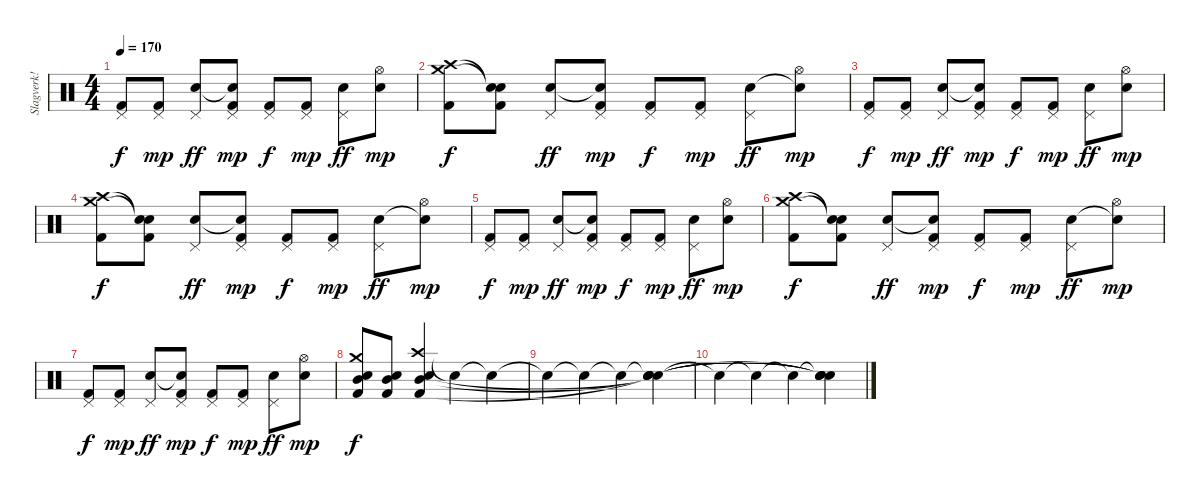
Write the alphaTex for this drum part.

\track ("Slagverk!" "Slagverk!") {instrument percussion}
\staff {score}
\articulation defaults
\ts (4 4)
\tempo 170
\clef neutral
\ks c
("Pedal Hi-Hat (hit)" "Kick (hit) 2").8{dy f} ("Pedal Hi-Hat (hit)" "Kick (hit) 2").8{dy mp} ("Pedal Hi-Hat (hit)" "Electric Snare (hit)").8{dy ff} ("Pedal Hi-Hat (hit)" "Snare (hit)"{t} "Kick (hit) 2").8{dy mp} ("Pedal Hi-Hat (hit)" "Kick (hit) 2").8{dy f} ("Pedal Hi-Hat (hit)" "Kick (hit) 2").8{dy mp} ("Pedal Hi-Hat (hit)" "Electric Snare (hit)").8{dy ff} ("Hi-Hat (open)" "Electric Snare (hit)").8{dy mp} |
("Crash medium (hit)" "Crash high (hit)" "Kick (hit) 2").8{dy f} ("Snare (hit)"{t} "Snare (hit)"{t} "Kick (hit) 2").8 ("Pedal Hi-Hat (hit)" "Electric Snare (hit)").8{dy ff} ("Pedal Hi-Hat (hit)" "Snare (hit)"{t} "Kick (hit) 2").8{dy mp} ("Pedal Hi-Hat (hit)" "Kick (hit) 2").8{dy f} ("Pedal Hi-Hat (hit)" "Kick (hit) 2").8{dy mp} ("Pedal Hi-Hat (hit)" "Electric Snare (hit)").8{dy ff} ("Hi-Hat (open)" "Snare (hit)"{t}).8{dy mp} |
("Pedal Hi-Hat (hit)" "Kick (hit) 2").8{dy f} ("Pedal Hi-Hat (hit)" "Kick (hit) 2").8{dy mp} ("Pedal Hi-Hat (hit)" "Electric Snare (hit)").8{dy ff} ("Pedal Hi-Hat (hit)" "Snare (hit)"{t} "Kick (hit) 2").8{dy mp} ("Pedal Hi-Hat (hit)" "Kick (hit) 2").8{dy f} ("Pedal Hi-Hat (hit)" "Kick (hit) 2").8{dy mp} ("Pedal Hi-Hat (hit)" "Electric Snare (hit)").8{dy ff} ("Hi-Hat (open)" "Electric Snare (hit)").8{dy mp} |
("Crash medium (hit)" "Crash high (hit)" "Kick (hit) 2").8{dy f} ("Snare (hit)"{t} "Snare (hit)"{t} "Kick (hit) 2").8 ("Pedal Hi-Hat (hit)" "Electric Snare (hit)").8{dy ff} ("Pedal Hi-Hat (hit)" "Snare (hit)"{t} "Kick (hit) 2").8{dy mp} ("Pedal Hi-Hat (hit)" "Kick (hit) 2").8{dy f} ("Pedal Hi-Hat (hit)" "Kick (hit) 2").8{dy mp} ("Pedal Hi-Hat (hit)" "Electric Snare (hit)").8{dy ff} ("Hi-Hat (open)" "Snare (hit)"{t}).8{dy mp} |
("Pedal Hi-Hat (hit)" "Kick (hit) 2").8{dy f} ("Pedal Hi-Hat (hit)" "Kick (hit) 2").8{dy mp} ("Pedal Hi-Hat (hit)" "Electric Snare (hit)").8{dy ff} ("Pedal Hi-Hat (hit)" "Snare (hit)"{t} "Kick (hit) 2").8{dy mp} ("Pedal Hi-Hat (hit)" "Kick (hit) 2").8{dy f} ("Pedal Hi-Hat (hit)" "Kick (hit) 2").8{dy mp} ("Pedal Hi-Hat (hit)" "Electric Snare (hit)").8{dy ff} ("Hi-Hat (open)" "Electric Snare (hit)").8{dy mp} |
("Crash medium (hit)" "Crash high (hit)" "Kick (hit) 2").8{dy f} ("Snare (hit)"{t} "Snare (hit)"{t} "Kick (hit) 2").8 ("Pedal Hi-Hat (hit)" "Electric Snare (hit)").8{dy ff} ("Pedal Hi-Hat (hit)" "Snare (hit)"{t} "Kick (hit) 2").8{dy mp} ("Pedal Hi-Hat (hit)" "Kick (hit) 2").8{dy f} ("Pedal Hi-Hat (hit)" "Kick (hit) 2").8{dy mp} ("Pedal Hi-Hat (hit)" "Electric Snare (hit)").8{dy ff} ("Hi-Hat (open)" "Snare (hit)"{t}).8{dy mp} |
("Pedal Hi-Hat (hit)" "Kick (hit) 2").8{dy f} ("Pedal Hi-Hat (hit)" "Kick (hit) 2").8{dy mp} ("Pedal Hi-Hat (hit)" "Electric Snare (hit)").8{dy ff} ("Pedal Hi-Hat (hit)" "Snare (hit)"{t} "Kick (hit) 2").8{dy mp} ("Pedal Hi-Hat (hit)" "Kick (hit) 2").8{dy f} ("Pedal Hi-Hat (hit)" "Kick (hit) 2").8{dy mp} ("Pedal Hi-Hat (hit)" "Electric Snare (hit)").8{dy ff} ("Hi-Hat (open)" "Electric Snare (hit)").8{dy mp} |
("Crash medium (hit)" "Electric Snare (hit)" "Mid Tom (hit)" "Kick (hit) 2").8{dy f} ("Snare (hit) 2" "Mid Tom (hit)" "Kick (hit) 2").8 ("Crash high (hit)" "Mid Tom (hit)" "Electric Snare (hit)" "Kick (hit) 2").4 "Snare (hit)"{t}.4 "Snare (hit)"{t}.4 |
"Snare (hit)"{t}.4 "Snare (hit)"{t}.4 "Snare (hit)"{t}.4 ("Snare (hit)"{t} "Snare (hit)"{t} "Snare (hit)"{t} "Snare (hit)"{t}).4 |
"Snare (hit)"{t}.4 "Snare (hit)"{t}.4 "Snare (hit)"{t}.4 ("Snare (hit)"{t} "Snare (hit)"{t} "Snare (hit)"{t} "Snare (hit)"{t}).4
